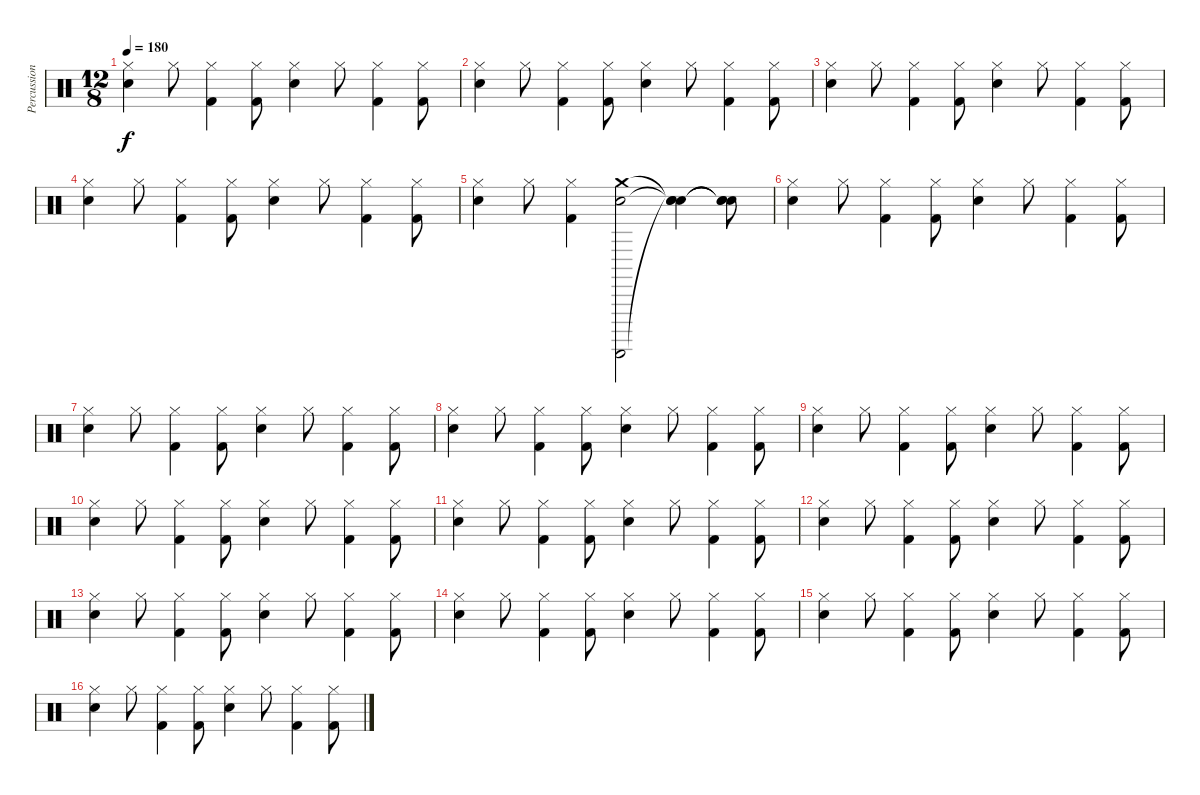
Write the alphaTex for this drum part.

\track ("Percussion" "Percussion") {instrument percussion}
\staff {score}
\articulation defaults
\ts (12 8)
\tempo 180
\clef neutral
\ks c
("Snare (hit) 2" "Hi-Hat (closed)").4{dy f} "Hi-Hat (closed)".8 ("Kick (hit) 2" "Hi-Hat (closed)").4 ("Kick (hit) 2" "Hi-Hat (closed)").8 ("Snare (hit) 2" "Hi-Hat (closed)").4 "Hi-Hat (closed)".8 ("Kick (hit) 2" "Hi-Hat (closed)").4 ("Kick (hit) 2" "Hi-Hat (closed)").8 |
("Snare (hit) 2" "Hi-Hat (closed)").4 "Hi-Hat (closed)".8 ("Kick (hit) 2" "Hi-Hat (closed)").4 ("Kick (hit) 2" "Hi-Hat (closed)").8 ("Snare (hit) 2" "Hi-Hat (closed)").4 "Hi-Hat (closed)".8 ("Kick (hit) 2" "Hi-Hat (closed)").4 ("Kick (hit) 2" "Hi-Hat (closed)").8 |
("Snare (hit) 2" "Hi-Hat (closed)").4 "Hi-Hat (closed)".8 ("Kick (hit) 2" "Hi-Hat (closed)").4 ("Kick (hit) 2" "Hi-Hat (closed)").8 ("Snare (hit) 2" "Hi-Hat (closed)").4 "Hi-Hat (closed)".8 ("Kick (hit) 2" "Hi-Hat (closed)").4 ("Kick (hit) 2" "Hi-Hat (closed)").8 |
("Snare (hit) 2" "Hi-Hat (closed)").4 "Hi-Hat (closed)".8 ("Kick (hit) 2" "Hi-Hat (closed)").4 ("Kick (hit) 2" "Hi-Hat (closed)").8 ("Snare (hit) 2" "Hi-Hat (closed)").4 "Hi-Hat (closed)".8 ("Kick (hit) 2" "Hi-Hat (closed)").4 ("Kick (hit) 2" "Hi-Hat (closed)").8 |
("Snare (hit) 2" "Hi-Hat (closed)").4 "Hi-Hat (closed)".8 ("Kick (hit) 2" "Hi-Hat (closed)").4 ("Guiro (scrap-return)" "Snare (hit) 2" "Crash medium (hit)").2 ("Snare (hit)"{t} "Snare (hit)"{t} "Snare (hit)"{t}).4 ("Snare (hit)"{t} "Snare (hit)"{t} "Snare (hit)"{t}).8 |
("Snare (hit) 2" "Hi-Hat (closed)").4 "Hi-Hat (closed)".8 ("Kick (hit) 2" "Hi-Hat (closed)").4 ("Kick (hit) 2" "Hi-Hat (closed)").8 ("Snare (hit) 2" "Hi-Hat (closed)").4 "Hi-Hat (closed)".8 ("Kick (hit) 2" "Hi-Hat (closed)").4 ("Kick (hit) 2" "Hi-Hat (closed)").8 |
("Snare (hit) 2" "Hi-Hat (closed)").4 "Hi-Hat (closed)".8 ("Kick (hit) 2" "Hi-Hat (closed)").4 ("Kick (hit) 2" "Hi-Hat (closed)").8 ("Snare (hit) 2" "Hi-Hat (closed)").4 "Hi-Hat (closed)".8 ("Kick (hit) 2" "Hi-Hat (closed)").4 ("Kick (hit) 2" "Hi-Hat (closed)").8 |
("Snare (hit) 2" "Hi-Hat (closed)").4 "Hi-Hat (closed)".8 ("Kick (hit) 2" "Hi-Hat (closed)").4 ("Kick (hit) 2" "Hi-Hat (closed)").8 ("Snare (hit) 2" "Hi-Hat (closed)").4 "Hi-Hat (closed)".8 ("Kick (hit) 2" "Hi-Hat (closed)").4 ("Kick (hit) 2" "Hi-Hat (closed)").8 |
("Snare (hit) 2" "Hi-Hat (closed)").4 "Hi-Hat (closed)".8 ("Kick (hit) 2" "Hi-Hat (closed)").4 ("Kick (hit) 2" "Hi-Hat (closed)").8 ("Snare (hit) 2" "Hi-Hat (closed)").4 "Hi-Hat (closed)".8 ("Kick (hit) 2" "Hi-Hat (closed)").4 ("Kick (hit) 2" "Hi-Hat (closed)").8 |
("Snare (hit) 2" "Hi-Hat (closed)").4 "Hi-Hat (closed)".8 ("Kick (hit) 2" "Hi-Hat (closed)").4 ("Kick (hit) 2" "Hi-Hat (closed)").8 ("Snare (hit) 2" "Hi-Hat (closed)").4 "Hi-Hat (closed)".8 ("Kick (hit) 2" "Hi-Hat (closed)").4 ("Kick (hit) 2" "Hi-Hat (closed)").8 |
("Snare (hit) 2" "Hi-Hat (closed)").4 "Hi-Hat (closed)".8 ("Kick (hit) 2" "Hi-Hat (closed)").4 ("Kick (hit) 2" "Hi-Hat (closed)").8 ("Snare (hit) 2" "Hi-Hat (closed)").4 "Hi-Hat (closed)".8 ("Kick (hit) 2" "Hi-Hat (closed)").4 ("Kick (hit) 2" "Hi-Hat (closed)").8 |
("Snare (hit) 2" "Hi-Hat (closed)").4 "Hi-Hat (closed)".8 ("Kick (hit) 2" "Hi-Hat (closed)").4 ("Kick (hit) 2" "Hi-Hat (closed)").8 ("Snare (hit) 2" "Hi-Hat (closed)").4 "Hi-Hat (closed)".8 ("Kick (hit) 2" "Hi-Hat (closed)").4 ("Kick (hit) 2" "Hi-Hat (closed)").8 |
("Snare (hit) 2" "Hi-Hat (closed)").4 "Hi-Hat (closed)".8 ("Kick (hit) 2" "Hi-Hat (closed)").4 ("Kick (hit) 2" "Hi-Hat (closed)").8 ("Snare (hit) 2" "Hi-Hat (closed)").4 "Hi-Hat (closed)".8 ("Kick (hit) 2" "Hi-Hat (closed)").4 ("Kick (hit) 2" "Hi-Hat (closed)").8 |
("Snare (hit) 2" "Hi-Hat (closed)").4 "Hi-Hat (closed)".8 ("Kick (hit) 2" "Hi-Hat (closed)").4 ("Kick (hit) 2" "Hi-Hat (closed)").8 ("Snare (hit) 2" "Hi-Hat (closed)").4 "Hi-Hat (closed)".8 ("Kick (hit) 2" "Hi-Hat (closed)").4 ("Kick (hit) 2" "Hi-Hat (closed)").8 |
("Snare (hit) 2" "Hi-Hat (closed)").4 "Hi-Hat (closed)".8 ("Kick (hit) 2" "Hi-Hat (closed)").4 ("Kick (hit) 2" "Hi-Hat (closed)").8 ("Snare (hit) 2" "Hi-Hat (closed)").4 "Hi-Hat (closed)".8 ("Kick (hit) 2" "Hi-Hat (closed)").4 ("Kick (hit) 2" "Hi-Hat (closed)").8 |
("Snare (hit) 2" "Hi-Hat (closed)").4 "Hi-Hat (closed)".8 ("Kick (hit) 2" "Hi-Hat (closed)").4 ("Kick (hit) 2" "Hi-Hat (closed)").8 ("Snare (hit) 2" "Hi-Hat (closed)").4 "Hi-Hat (closed)".8 ("Kick (hit) 2" "Hi-Hat (closed)").4 ("Kick (hit) 2" "Hi-Hat (closed)").8
